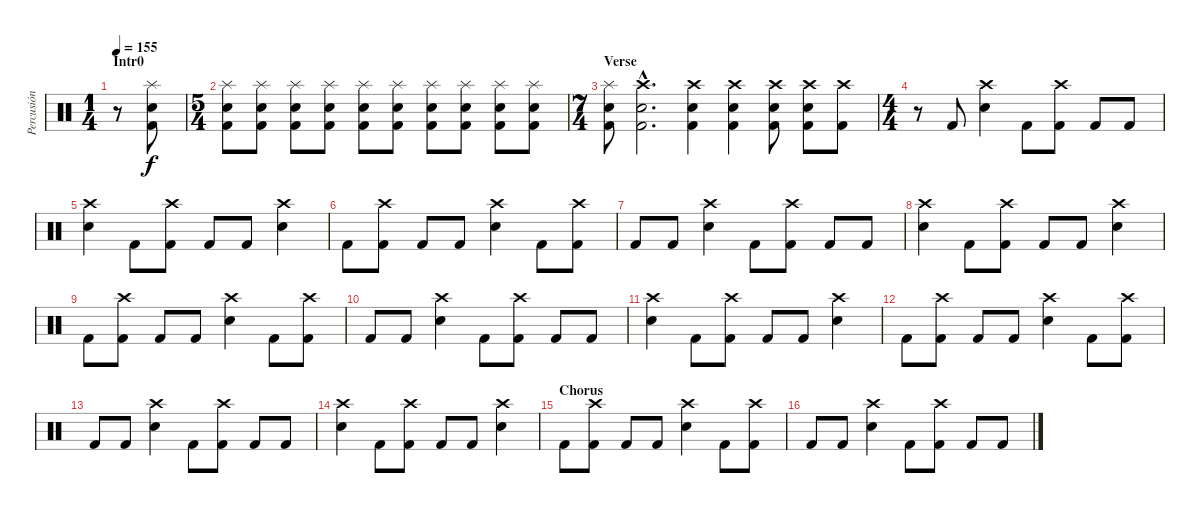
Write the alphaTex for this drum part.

\track ("Percusión" "Percusión") {instrument percussion}
\staff {score}
\articulation defaults
\ts (1 4)
\section ("" "Intr0")
\tempo 155
\clef neutral
\ks c
r.8{dy f} ("Splash (hit)" "Electric Snare (hit)" "Kick (hit) 2").8 |
\ts (5 4)
("Splash (hit)" "Electric Snare (hit)" "Kick (hit) 2").8 ("Splash (hit)" "Electric Snare (hit)" "Kick (hit) 2").8 ("Splash (hit)" "Electric Snare (hit)" "Kick (hit) 2").8 ("Splash (hit)" "Electric Snare (hit)" "Kick (hit) 2").8 ("Splash (hit)" "Electric Snare (hit)" "Kick (hit) 2").8 ("Splash (hit)" "Electric Snare (hit)" "Kick (hit) 2").8 ("Splash (hit)" "Electric Snare (hit)" "Kick (hit) 2").8 ("Splash (hit)" "Electric Snare (hit)" "Kick (hit) 2").8 ("Splash (hit)" "Electric Snare (hit)" "Kick (hit) 2").8 ("Splash (hit)" "Electric Snare (hit)" "Kick (hit) 2").8 |
\ts (7 4)
\section ("" "Verse")
("Splash (hit)" "Electric Snare (hit)" "Kick (hit) 2").8 ("Crash high (hit)"{hac} "Electric Snare (hit)"{hac} "Kick (hit) 2"{hac}).2{d} ("Crash high (hit)" "Electric Snare (hit)" "Kick (hit) 2").4 ("Crash high (hit)" "Electric Snare (hit)" "Kick (hit) 2").4 ("Crash high (hit)" "Electric Snare (hit)" "Kick (hit) 2").8 ("Crash high (hit)" "Electric Snare (hit)" "Kick (hit) 2").8 ("Crash high (hit)" "Kick (hit) 2").8 |
\ts (4 4)
r.8 "Kick (hit) 2".8 ("Electric Snare (hit)" "Crash high (hit)").4 "Kick (hit) 2".8 ("Crash high (hit)" "Kick (hit) 2").8 "Kick (hit) 2".8 "Kick (hit) 2".8 |
("Crash high (hit)" "Electric Snare (hit)").4 "Kick (hit) 2".8 ("Crash high (hit)" "Kick (hit) 2").8 "Kick (hit) 2".8 "Kick (hit) 2".8 ("Crash high (hit)" "Electric Snare (hit)").4 |
"Kick (hit) 2".8 ("Crash high (hit)" "Kick (hit) 2").8 "Kick (hit) 2".8 "Kick (hit) 2".8 ("Crash high (hit)" "Electric Snare (hit)").4 "Kick (hit) 2".8 ("Crash high (hit)" "Kick (hit) 2").8 |
"Kick (hit) 2".8 "Kick (hit) 2".8 ("Crash high (hit)" "Electric Snare (hit)").4 "Kick (hit) 2".8 ("Crash high (hit)" "Kick (hit) 2").8 "Kick (hit) 2".8 "Kick (hit) 2".8 |
("Crash high (hit)" "Electric Snare (hit)").4 "Kick (hit) 2".8 ("Crash high (hit)" "Kick (hit) 2").8 "Kick (hit) 2".8 "Kick (hit) 2".8 ("Crash high (hit)" "Electric Snare (hit)").4 |
"Kick (hit) 2".8 ("Crash high (hit)" "Kick (hit) 2").8 "Kick (hit) 2".8 "Kick (hit) 2".8 ("Crash high (hit)" "Electric Snare (hit)").4 "Kick (hit) 2".8 ("Crash high (hit)" "Kick (hit) 2").8 |
"Kick (hit) 2".8 "Kick (hit) 2".8 ("Crash high (hit)" "Electric Snare (hit)").4 "Kick (hit) 2".8 ("Crash high (hit)" "Kick (hit) 2").8 "Kick (hit) 2".8 "Kick (hit) 2".8 |
("Crash high (hit)" "Electric Snare (hit)").4 "Kick (hit) 2".8 ("Crash high (hit)" "Kick (hit) 2").8 "Kick (hit) 2".8 "Kick (hit) 2".8 ("Crash high (hit)" "Electric Snare (hit)").4 |
"Kick (hit) 2".8 ("Crash high (hit)" "Kick (hit) 2").8 "Kick (hit) 2".8 "Kick (hit) 2".8 ("Crash high (hit)" "Electric Snare (hit)").4 "Kick (hit) 2".8 ("Crash high (hit)" "Kick (hit) 2").8 |
"Kick (hit) 2".8 "Kick (hit) 2".8 ("Crash high (hit)" "Electric Snare (hit)").4 "Kick (hit) 2".8 ("Crash high (hit)" "Kick (hit) 2").8 "Kick (hit) 2".8 "Kick (hit) 2".8 |
("Crash high (hit)" "Electric Snare (hit)").4 "Kick (hit) 2".8 ("Crash high (hit)" "Kick (hit) 2").8 "Kick (hit) 2".8 "Kick (hit) 2".8 ("Crash high (hit)" "Electric Snare (hit)").4 |
\section ("" "Chorus")
"Kick (hit) 2".8 ("Crash high (hit)" "Kick (hit) 2").8 "Kick (hit) 2".8 "Kick (hit) 2".8 ("Crash high (hit)" "Electric Snare (hit)").4 "Kick (hit) 2".8 ("Crash high (hit)" "Kick (hit) 2").8 |
"Kick (hit) 2".8 "Kick (hit) 2".8 ("Crash high (hit)" "Electric Snare (hit)").4 "Kick (hit) 2".8 ("Crash high (hit)" "Kick (hit) 2").8 "Kick (hit) 2".8 "Kick (hit) 2".8
